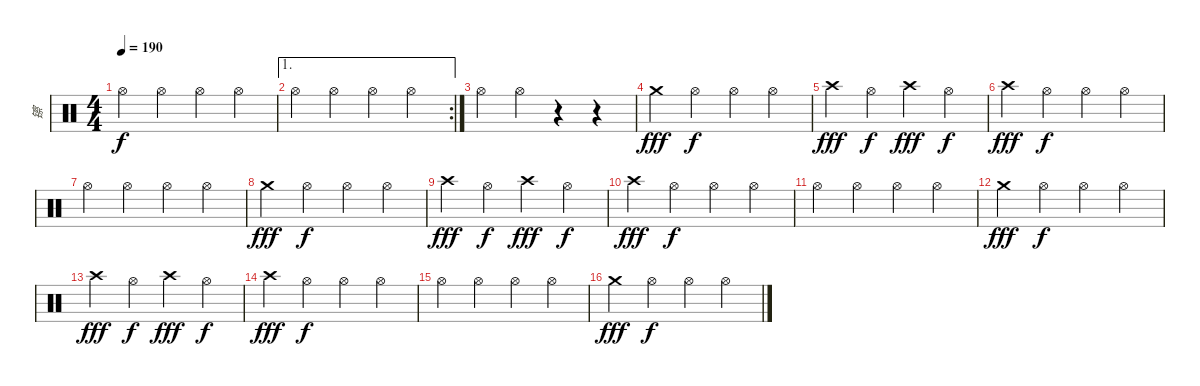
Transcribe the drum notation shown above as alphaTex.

\track ("镲" "镲") {instrument percussion}
\staff {score}
\articulation defaults
\ts (4 4)
\tempo 190
\clef neutral
\ks c "Hi-Hat (open)".4{dy f} "Hi-Hat (open)".4 "Hi-Hat (open)".4 "Hi-Hat (open)".4
|
\ae 1
\rc 2 "Hi-Hat (open)".4 "Hi-Hat (open)".4 "Hi-Hat (open)".4 "Hi-Hat (open)".4
|
"Hi-Hat (open)".4 "Hi-Hat (open)".4 r.4 r.4 |
"Crash medium (hit)".4{dy fff} "Hi-Hat (open)".4{dy f} "Hi-Hat (open)".4 "Hi-Hat (open)".4 |
"Crash high (hit)".4{dy fff} "Hi-Hat (open)".4{dy f} "Crash high (hit)".4{dy fff} "Hi-Hat (open)".4{dy f} |
"Crash high (hit)".4{dy fff} "Hi-Hat (open)".4{dy f} "Hi-Hat (open)".4 "Hi-Hat (open)".4 |
"Hi-Hat (open)".4 "Hi-Hat (open)".4 "Hi-Hat (open)".4 "Hi-Hat (open)".4 |
"Crash medium (hit)".4{dy fff} "Hi-Hat (open)".4{dy f} "Hi-Hat (open)".4 "Hi-Hat (open)".4 |
"Crash high (hit)".4{dy fff} "Hi-Hat (open)".4{dy f} "Crash high (hit)".4{dy fff} "Hi-Hat (open)".4{dy f} |
"Crash high (hit)".4{dy fff} "Hi-Hat (open)".4{dy f} "Hi-Hat (open)".4 "Hi-Hat (open)".4 |
"Hi-Hat (open)".4 "Hi-Hat (open)".4 "Hi-Hat (open)".4 "Hi-Hat (open)".4 |
"Crash medium (hit)".4{dy fff} "Hi-Hat (open)".4{dy f} "Hi-Hat (open)".4 "Hi-Hat (open)".4 |
"Crash high (hit)".4{dy fff} "Hi-Hat (open)".4{dy f} "Crash high (hit)".4{dy fff} "Hi-Hat (open)".4{dy f} |
"Crash high (hit)".4{dy fff} "Hi-Hat (open)".4{dy f} "Hi-Hat (open)".4 "Hi-Hat (open)".4 |
"Hi-Hat (open)".4 "Hi-Hat (open)".4 "Hi-Hat (open)".4 "Hi-Hat (open)".4 |
"Crash medium (hit)".4{dy fff} "Hi-Hat (open)".4{dy f} "Hi-Hat (open)".4 "Hi-Hat (open)".4
